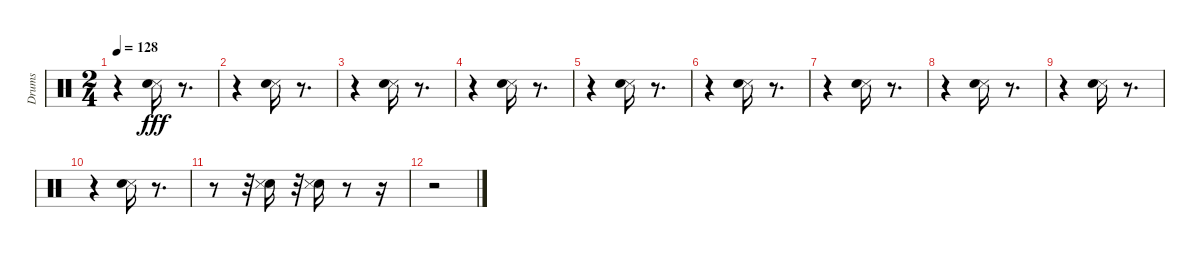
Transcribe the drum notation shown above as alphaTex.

\track ("Drums" "Drums") {instrument percussion}
\staff {score}
\articulation defaults
\ts (2 4)
\tempo 128
\clef neutral
\ks c
r.4{dy fff} ("Snare (side stick) 3" "Hand Clap (hit)").16 r.8{d} |
r.4 ("Snare (side stick) 3" "Hand Clap (hit)").16 r.8{d} |
r.4 ("Snare (side stick) 3" "Hand Clap (hit)").16 r.8{d} |
r.4 ("Snare (side stick) 3" "Hand Clap (hit)").16 r.8{d} |
r.4 ("Snare (side stick) 3" "Hand Clap (hit)").16 r.8{d} |
r.4 ("Snare (side stick) 3" "Hand Clap (hit)").16 r.8{d} |
r.4 ("Snare (side stick) 3" "Hand Clap (hit)").16 r.8{d} |
r.4 ("Snare (side stick) 3" "Hand Clap (hit)").16 r.8{d} |
r.4 ("Snare (side stick) 3" "Hand Clap (hit)").16 r.8{d} |
r.4 ("Snare (side stick) 3" "Hand Clap (hit)").16 r.8{d} |
r.8 r.32 ("Hand Clap (hit)" "Snare (side stick) 3").16 r.32 ("Hand Clap (hit)" "Snare (side stick) 3").16 r.8 r.16 |
r.2
